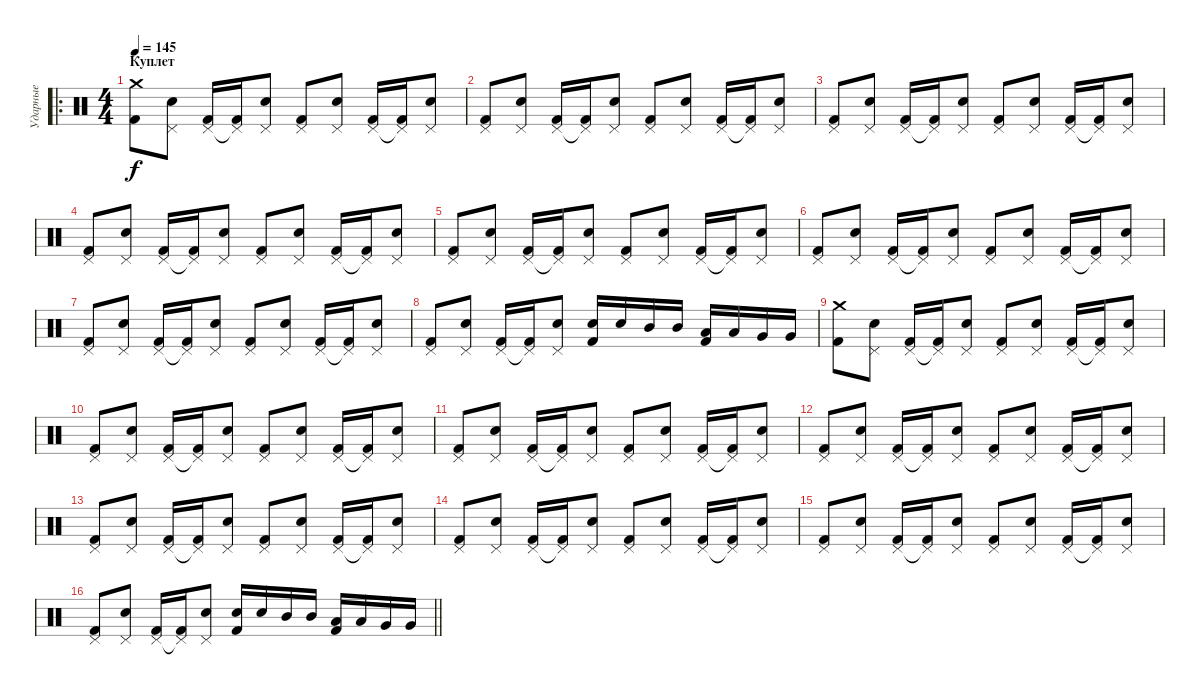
\track ("Ударные" "Ударные") {instrument percussion}
\staff {score}
\articulation defaults
\ro
\ts (4 4)
\section ("" "Куплет")
\tempo 145
\clef neutral
\ks c
("Crash medium (hit)" "Kick (hit) 2").8{dy f} ("Pedal Hi-Hat (hit)" "Electric Snare (hit)").8 ("Pedal Hi-Hat (hit)" "Kick (hit) 2").16 ("Pedal Hi-Hat (hit)"{t} "Kick (hit) 2").16 ("Pedal Hi-Hat (hit)" "Electric Snare (hit)").8 ("Pedal Hi-Hat (hit)" "Kick (hit) 2").8 ("Pedal Hi-Hat (hit)" "Electric Snare (hit)").8 ("Pedal Hi-Hat (hit)" "Kick (hit) 2").16 ("Pedal Hi-Hat (hit)"{t} "Kick (hit) 2").16 ("Pedal Hi-Hat (hit)" "Electric Snare (hit)").8 |
("Pedal Hi-Hat (hit)" "Kick (hit) 2").8 ("Pedal Hi-Hat (hit)" "Electric Snare (hit)").8 ("Pedal Hi-Hat (hit)" "Kick (hit) 2").16 ("Pedal Hi-Hat (hit)"{t} "Kick (hit) 2").16 ("Pedal Hi-Hat (hit)" "Electric Snare (hit)").8 ("Pedal Hi-Hat (hit)" "Kick (hit) 2").8 ("Pedal Hi-Hat (hit)" "Electric Snare (hit)").8 ("Pedal Hi-Hat (hit)" "Kick (hit) 2").16 ("Pedal Hi-Hat (hit)"{t} "Kick (hit) 2").16 ("Pedal Hi-Hat (hit)" "Electric Snare (hit)").8 |
("Pedal Hi-Hat (hit)" "Kick (hit) 2").8 ("Pedal Hi-Hat (hit)" "Electric Snare (hit)").8 ("Pedal Hi-Hat (hit)" "Kick (hit) 2").16 ("Pedal Hi-Hat (hit)"{t} "Kick (hit) 2").16 ("Pedal Hi-Hat (hit)" "Electric Snare (hit)").8 ("Pedal Hi-Hat (hit)" "Kick (hit) 2").8 ("Pedal Hi-Hat (hit)" "Electric Snare (hit)").8 ("Pedal Hi-Hat (hit)" "Kick (hit) 2").16 ("Pedal Hi-Hat (hit)"{t} "Kick (hit) 2").16 ("Pedal Hi-Hat (hit)" "Electric Snare (hit)").8 |
("Pedal Hi-Hat (hit)" "Kick (hit) 2").8 ("Pedal Hi-Hat (hit)" "Electric Snare (hit)").8 ("Pedal Hi-Hat (hit)" "Kick (hit) 2").16 ("Pedal Hi-Hat (hit)"{t} "Kick (hit) 2").16 ("Pedal Hi-Hat (hit)" "Electric Snare (hit)").8 ("Pedal Hi-Hat (hit)" "Kick (hit) 2").8 ("Pedal Hi-Hat (hit)" "Electric Snare (hit)").8 ("Pedal Hi-Hat (hit)" "Kick (hit) 2").16 ("Pedal Hi-Hat (hit)"{t} "Kick (hit) 2").16 ("Pedal Hi-Hat (hit)" "Electric Snare (hit)").8 |
("Pedal Hi-Hat (hit)" "Kick (hit) 2").8 ("Pedal Hi-Hat (hit)" "Electric Snare (hit)").8 ("Pedal Hi-Hat (hit)" "Kick (hit) 2").16 ("Pedal Hi-Hat (hit)"{t} "Kick (hit) 2").16 ("Pedal Hi-Hat (hit)" "Electric Snare (hit)").8 ("Pedal Hi-Hat (hit)" "Kick (hit) 2").8 ("Pedal Hi-Hat (hit)" "Electric Snare (hit)").8 ("Pedal Hi-Hat (hit)" "Kick (hit) 2").16 ("Pedal Hi-Hat (hit)"{t} "Kick (hit) 2").16 ("Pedal Hi-Hat (hit)" "Electric Snare (hit)").8 |
("Pedal Hi-Hat (hit)" "Kick (hit) 2").8 ("Pedal Hi-Hat (hit)" "Electric Snare (hit)").8 ("Pedal Hi-Hat (hit)" "Kick (hit) 2").16 ("Pedal Hi-Hat (hit)"{t} "Kick (hit) 2").16 ("Pedal Hi-Hat (hit)" "Electric Snare (hit)").8 ("Pedal Hi-Hat (hit)" "Kick (hit) 2").8 ("Pedal Hi-Hat (hit)" "Electric Snare (hit)").8 ("Pedal Hi-Hat (hit)" "Kick (hit) 2").16 ("Pedal Hi-Hat (hit)"{t} "Kick (hit) 2").16 ("Pedal Hi-Hat (hit)" "Electric Snare (hit)").8 |
("Pedal Hi-Hat (hit)" "Kick (hit) 2").8 ("Pedal Hi-Hat (hit)" "Electric Snare (hit)").8 ("Pedal Hi-Hat (hit)" "Kick (hit) 2").16 ("Pedal Hi-Hat (hit)"{t} "Kick (hit) 2").16 ("Pedal Hi-Hat (hit)" "Electric Snare (hit)").8 ("Pedal Hi-Hat (hit)" "Kick (hit) 2").8 ("Pedal Hi-Hat (hit)" "Electric Snare (hit)").8 ("Pedal Hi-Hat (hit)" "Kick (hit) 2").16 ("Pedal Hi-Hat (hit)"{t} "Kick (hit) 2").16 ("Pedal Hi-Hat (hit)" "Electric Snare (hit)").8 |
("Pedal Hi-Hat (hit)" "Kick (hit) 2").8 ("Pedal Hi-Hat (hit)" "Electric Snare (hit)").8 ("Pedal Hi-Hat (hit)" "Kick (hit) 2").16 ("Pedal Hi-Hat (hit)"{t} "Kick (hit) 2").16 ("Pedal Hi-Hat (hit)" "Electric Snare (hit)").8 ("Electric Snare (hit)" "Kick (hit) 2").16 "Electric Snare (hit)".16 "Mid Tom (hit)".16 "Mid Tom (hit)".16 ("Low Tom (hit)" "Kick (hit) 2").16 "Low Tom (hit)".16 "Very Low Tom (hit)".16 "Very Low Tom (hit)".16 |
("Crash medium (hit)" "Kick (hit) 2").8 ("Pedal Hi-Hat (hit)" "Electric Snare (hit)").8 ("Pedal Hi-Hat (hit)" "Kick (hit) 2").16 ("Pedal Hi-Hat (hit)"{t} "Kick (hit) 2").16 ("Pedal Hi-Hat (hit)" "Electric Snare (hit)").8 ("Pedal Hi-Hat (hit)" "Kick (hit) 2").8 ("Pedal Hi-Hat (hit)" "Electric Snare (hit)").8 ("Pedal Hi-Hat (hit)" "Kick (hit) 2").16 ("Pedal Hi-Hat (hit)"{t} "Kick (hit) 2").16 ("Pedal Hi-Hat (hit)" "Electric Snare (hit)").8 |
("Pedal Hi-Hat (hit)" "Kick (hit) 2").8 ("Pedal Hi-Hat (hit)" "Electric Snare (hit)").8 ("Pedal Hi-Hat (hit)" "Kick (hit) 2").16 ("Pedal Hi-Hat (hit)"{t} "Kick (hit) 2").16 ("Pedal Hi-Hat (hit)" "Electric Snare (hit)").8 ("Pedal Hi-Hat (hit)" "Kick (hit) 2").8 ("Pedal Hi-Hat (hit)" "Electric Snare (hit)").8 ("Pedal Hi-Hat (hit)" "Kick (hit) 2").16 ("Pedal Hi-Hat (hit)"{t} "Kick (hit) 2").16 ("Pedal Hi-Hat (hit)" "Electric Snare (hit)").8 |
("Pedal Hi-Hat (hit)" "Kick (hit) 2").8 ("Pedal Hi-Hat (hit)" "Electric Snare (hit)").8 ("Pedal Hi-Hat (hit)" "Kick (hit) 2").16 ("Pedal Hi-Hat (hit)"{t} "Kick (hit) 2").16 ("Pedal Hi-Hat (hit)" "Electric Snare (hit)").8 ("Pedal Hi-Hat (hit)" "Kick (hit) 2").8 ("Pedal Hi-Hat (hit)" "Electric Snare (hit)").8 ("Pedal Hi-Hat (hit)" "Kick (hit) 2").16 ("Pedal Hi-Hat (hit)"{t} "Kick (hit) 2").16 ("Pedal Hi-Hat (hit)" "Electric Snare (hit)").8 |
("Pedal Hi-Hat (hit)" "Kick (hit) 2").8 ("Pedal Hi-Hat (hit)" "Electric Snare (hit)").8 ("Pedal Hi-Hat (hit)" "Kick (hit) 2").16 ("Pedal Hi-Hat (hit)"{t} "Kick (hit) 2").16 ("Pedal Hi-Hat (hit)" "Electric Snare (hit)").8 ("Pedal Hi-Hat (hit)" "Kick (hit) 2").8 ("Pedal Hi-Hat (hit)" "Electric Snare (hit)").8 ("Pedal Hi-Hat (hit)" "Kick (hit) 2").16 ("Pedal Hi-Hat (hit)"{t} "Kick (hit) 2").16 ("Pedal Hi-Hat (hit)" "Electric Snare (hit)").8 |
("Pedal Hi-Hat (hit)" "Kick (hit) 2").8 ("Pedal Hi-Hat (hit)" "Electric Snare (hit)").8 ("Pedal Hi-Hat (hit)" "Kick (hit) 2").16 ("Pedal Hi-Hat (hit)"{t} "Kick (hit) 2").16 ("Pedal Hi-Hat (hit)" "Electric Snare (hit)").8 ("Pedal Hi-Hat (hit)" "Kick (hit) 2").8 ("Pedal Hi-Hat (hit)" "Electric Snare (hit)").8 ("Pedal Hi-Hat (hit)" "Kick (hit) 2").16 ("Pedal Hi-Hat (hit)"{t} "Kick (hit) 2").16 ("Pedal Hi-Hat (hit)" "Electric Snare (hit)").8 |
("Pedal Hi-Hat (hit)" "Kick (hit) 2").8 ("Pedal Hi-Hat (hit)" "Electric Snare (hit)").8 ("Pedal Hi-Hat (hit)" "Kick (hit) 2").16 ("Pedal Hi-Hat (hit)"{t} "Kick (hit) 2").16 ("Pedal Hi-Hat (hit)" "Electric Snare (hit)").8 ("Pedal Hi-Hat (hit)" "Kick (hit) 2").8 ("Pedal Hi-Hat (hit)" "Electric Snare (hit)").8 ("Pedal Hi-Hat (hit)" "Kick (hit) 2").16 ("Pedal Hi-Hat (hit)"{t} "Kick (hit) 2").16 ("Pedal Hi-Hat (hit)" "Electric Snare (hit)").8 |
("Pedal Hi-Hat (hit)" "Kick (hit) 2").8 ("Pedal Hi-Hat (hit)" "Electric Snare (hit)").8 ("Pedal Hi-Hat (hit)" "Kick (hit) 2").16 ("Pedal Hi-Hat (hit)"{t} "Kick (hit) 2").16 ("Pedal Hi-Hat (hit)" "Electric Snare (hit)").8 ("Pedal Hi-Hat (hit)" "Kick (hit) 2").8 ("Pedal Hi-Hat (hit)" "Electric Snare (hit)").8 ("Pedal Hi-Hat (hit)" "Kick (hit) 2").16 ("Pedal Hi-Hat (hit)"{t} "Kick (hit) 2").16 ("Pedal Hi-Hat (hit)" "Electric Snare (hit)").8 |
\barLineRight lightlight
("Pedal Hi-Hat (hit)" "Kick (hit) 2").8 ("Pedal Hi-Hat (hit)" "Electric Snare (hit)").8 ("Pedal Hi-Hat (hit)" "Kick (hit) 2").16 ("Pedal Hi-Hat (hit)"{t} "Kick (hit) 2").16 ("Pedal Hi-Hat (hit)" "Electric Snare (hit)").8 ("Electric Snare (hit)" "Kick (hit) 2").16 "Electric Snare (hit)".16 "Mid Tom (hit)".16 "Mid Tom (hit)".16 ("Low Tom (hit)" "Kick (hit) 2").16 "Low Tom (hit)".16 "Very Low Tom (hit)".16 "Very Low Tom (hit)".16
